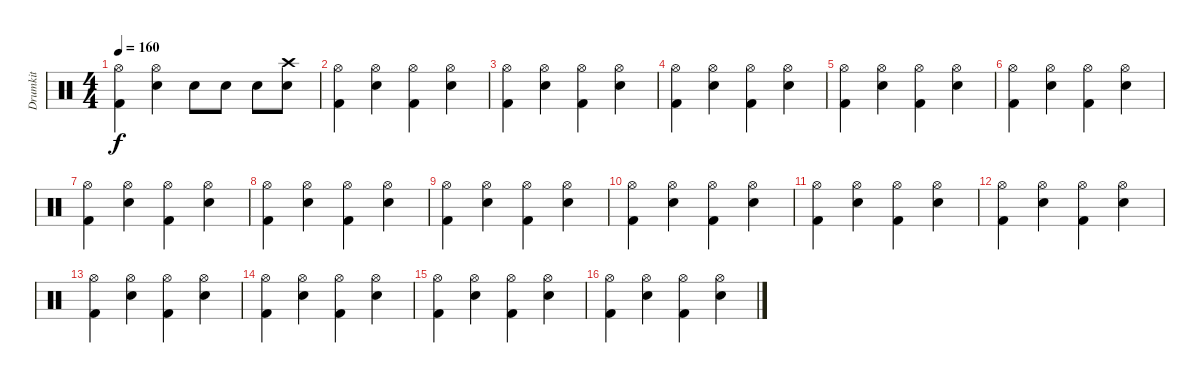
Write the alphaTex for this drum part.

\track ("Drumkit" "Drumkit") {instrument percussion}
\staff {score}
\articulation defaults
\ts (4 4)
\tempo 160
\clef neutral
\ks c
("Hi-Hat (open)" "Kick (hit) 2").4{dy f} ("Hi-Hat (open)" "Electric Snare (hit)").4 "Electric Snare (hit)".8 "Electric Snare (hit)".8 "Electric Snare (hit)".8 ("Crash high (hit)" "Electric Snare (hit)").8 |
("Hi-Hat (open)" "Kick (hit) 2").4 ("Hi-Hat (open)" "Electric Snare (hit)").4 ("Hi-Hat (open)" "Kick (hit) 2").4 ("Hi-Hat (open)" "Electric Snare (hit)").4 |
("Hi-Hat (open)" "Kick (hit) 2").4 ("Hi-Hat (open)" "Electric Snare (hit)").4 ("Hi-Hat (open)" "Kick (hit) 2").4 ("Hi-Hat (open)" "Electric Snare (hit)").4 |
("Hi-Hat (open)" "Kick (hit) 2").4 ("Hi-Hat (open)" "Electric Snare (hit)").4 ("Hi-Hat (open)" "Kick (hit) 2").4 ("Hi-Hat (open)" "Electric Snare (hit)").4 |
("Hi-Hat (open)" "Kick (hit) 2").4 ("Hi-Hat (open)" "Electric Snare (hit)").4 ("Hi-Hat (open)" "Kick (hit) 2").4 ("Hi-Hat (open)" "Electric Snare (hit)").4 |
("Hi-Hat (open)" "Kick (hit) 2").4 ("Hi-Hat (open)" "Electric Snare (hit)").4 ("Hi-Hat (open)" "Kick (hit) 2").4 ("Hi-Hat (open)" "Electric Snare (hit)").4 |
("Hi-Hat (open)" "Kick (hit) 2").4 ("Hi-Hat (open)" "Electric Snare (hit)").4 ("Hi-Hat (open)" "Kick (hit) 2").4 ("Hi-Hat (open)" "Electric Snare (hit)").4 |
("Hi-Hat (open)" "Kick (hit) 2").4 ("Hi-Hat (open)" "Electric Snare (hit)").4 ("Hi-Hat (open)" "Kick (hit) 2").4 ("Hi-Hat (open)" "Electric Snare (hit)").4 |
("Hi-Hat (open)" "Kick (hit) 2").4 ("Hi-Hat (open)" "Electric Snare (hit)").4 ("Hi-Hat (open)" "Kick (hit) 2").4 ("Hi-Hat (open)" "Electric Snare (hit)").4 |
("Hi-Hat (open)" "Kick (hit) 2").4 ("Hi-Hat (open)" "Electric Snare (hit)").4 ("Hi-Hat (open)" "Kick (hit) 2").4 ("Hi-Hat (open)" "Electric Snare (hit)").4 |
("Hi-Hat (open)" "Kick (hit) 2").4 ("Hi-Hat (open)" "Electric Snare (hit)").4 ("Hi-Hat (open)" "Kick (hit) 2").4 ("Hi-Hat (open)" "Electric Snare (hit)").4 |
("Hi-Hat (open)" "Kick (hit) 2").4 ("Hi-Hat (open)" "Electric Snare (hit)").4 ("Hi-Hat (open)" "Kick (hit) 2").4 ("Hi-Hat (open)" "Electric Snare (hit)").4 |
("Hi-Hat (open)" "Kick (hit) 2").4 ("Hi-Hat (open)" "Electric Snare (hit)").4 ("Hi-Hat (open)" "Kick (hit) 2").4 ("Hi-Hat (open)" "Electric Snare (hit)").4 |
("Hi-Hat (open)" "Kick (hit) 2").4 ("Hi-Hat (open)" "Electric Snare (hit)").4 ("Hi-Hat (open)" "Kick (hit) 2").4 ("Hi-Hat (open)" "Electric Snare (hit)").4 |
("Hi-Hat (open)" "Kick (hit) 2").4 ("Hi-Hat (open)" "Electric Snare (hit)").4 ("Hi-Hat (open)" "Kick (hit) 2").4 ("Hi-Hat (open)" "Electric Snare (hit)").4 |
("Hi-Hat (open)" "Kick (hit) 2").4 ("Hi-Hat (open)" "Electric Snare (hit)").4 ("Hi-Hat (open)" "Kick (hit) 2").4 ("Hi-Hat (open)" "Electric Snare (hit)").4
